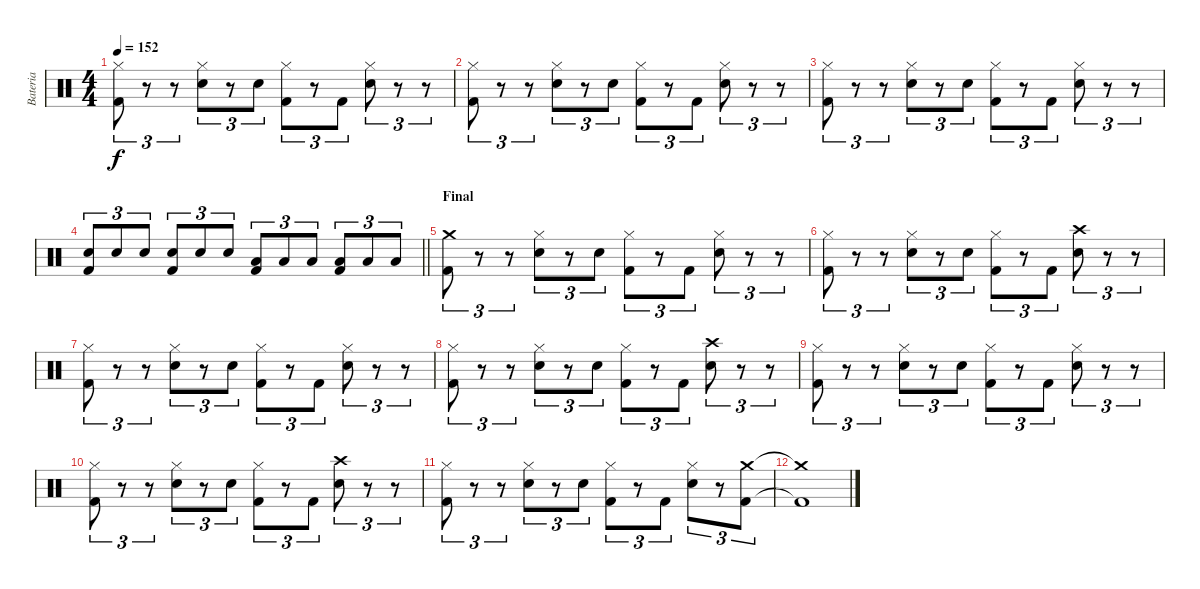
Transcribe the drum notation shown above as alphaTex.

\track ("Bateria" "Bateria") {instrument percussion}
\staff {score}
\articulation defaults
\ts (4 4)
\tempo 152
\clef neutral
\ks c
("Hi-Hat (closed)" "Kick (hit) 2").8{tu (3 2) dy f} r.8{tu (3 2)} r.8{tu (3 2)} ("Hi-Hat (closed)" "Snare (hit) 2").8{tu (3 2)} r.8{tu (3 2)} "Snare (hit) 2".8{tu (3 2)} ("Hi-Hat (closed)" "Kick (hit) 2").8{tu (3 2)} r.8{tu (3 2)} "Kick (hit) 2".8{tu (3 2)} ("Hi-Hat (closed)" "Snare (hit) 2").8{tu (3 2)} r.8{tu (3 2)} r.8{tu (3 2)} |
("Hi-Hat (closed)" "Kick (hit) 2").8{tu (3 2)} r.8{tu (3 2)} r.8{tu (3 2)} ("Hi-Hat (closed)" "Snare (hit) 2").8{tu (3 2)} r.8{tu (3 2)} "Snare (hit) 2".8{tu (3 2)} ("Hi-Hat (closed)" "Kick (hit) 2").8{tu (3 2)} r.8{tu (3 2)} "Kick (hit) 2".8{tu (3 2)} ("Hi-Hat (closed)" "Snare (hit) 2").8{tu (3 2)} r.8{tu (3 2)} r.8{tu (3 2)} |
("Hi-Hat (closed)" "Kick (hit) 2").8{tu (3 2)} r.8{tu (3 2)} r.8{tu (3 2)} ("Hi-Hat (closed)" "Snare (hit) 2").8{tu (3 2)} r.8{tu (3 2)} "Snare (hit) 2".8{tu (3 2)} ("Hi-Hat (closed)" "Kick (hit) 2").8{tu (3 2)} r.8{tu (3 2)} "Kick (hit) 2".8{tu (3 2)} ("Hi-Hat (closed)" "Snare (hit) 2").8{tu (3 2)} r.8{tu (3 2)} r.8{tu (3 2)} |
\barLineRight lightlight
("Snare (hit) 2" "Kick (hit) 2").8{tu (3 2)} "Snare (hit) 2".8{tu (3 2)} "Snare (hit) 2".8{tu (3 2)} ("Snare (hit) 2" "Kick (hit) 2").8{tu (3 2)} "Snare (hit) 2".8{tu (3 2)} "Snare (hit) 2".8{tu (3 2)} ("Low Floor Tom (hit)" "Kick (hit) 2").8{tu (3 2)} "Low Tom (hit)".8{tu (3 2)} "Low Tom (hit)".8{tu (3 2)} ("Low Floor Tom (hit)" "Kick (hit) 2").8{tu (3 2)} "Low Floor Tom (hit)".8{tu (3 2)} "Low Floor Tom (hit)".8{tu (3 2)} |
\section ("" "Final")
("Crash medium (hit)" "Kick (hit) 2").8{tu (3 2)} r.8{tu (3 2)} r.8{tu (3 2)} ("Hi-Hat (closed)" "Snare (hit) 2").8{tu (3 2)} r.8{tu (3 2)} "Snare (hit) 2".8{tu (3 2)} ("Hi-Hat (closed)" "Kick (hit) 2").8{tu (3 2)} r.8{tu (3 2)} "Kick (hit) 2".8{tu (3 2)} ("Hi-Hat (closed)" "Snare (hit) 2").8{tu (3 2)} r.8{tu (3 2)} r.8{tu (3 2)} |
("Hi-Hat (closed)" "Kick (hit) 2").8{tu (3 2)} r.8{tu (3 2)} r.8{tu (3 2)} ("Hi-Hat (closed)" "Snare (hit) 2").8{tu (3 2)} r.8{tu (3 2)} "Snare (hit) 2".8{tu (3 2)} ("Hi-Hat (closed)" "Kick (hit) 2").8{tu (3 2)} r.8{tu (3 2)} "Kick (hit) 2".8{tu (3 2)} ("Crash high (hit)" "Snare (hit) 2").8{tu (3 2)} r.8{tu (3 2)} r.8{tu (3 2)} |
("Hi-Hat (closed)" "Kick (hit) 2").8{tu (3 2)} r.8{tu (3 2)} r.8{tu (3 2)} ("Hi-Hat (closed)" "Snare (hit) 2").8{tu (3 2)} r.8{tu (3 2)} "Snare (hit) 2".8{tu (3 2)} ("Hi-Hat (closed)" "Kick (hit) 2").8{tu (3 2)} r.8{tu (3 2)} "Kick (hit) 2".8{tu (3 2)} ("Hi-Hat (closed)" "Snare (hit) 2").8{tu (3 2)} r.8{tu (3 2)} r.8{tu (3 2)} |
("Hi-Hat (closed)" "Kick (hit) 2").8{tu (3 2)} r.8{tu (3 2)} r.8{tu (3 2)} ("Hi-Hat (closed)" "Snare (hit) 2").8{tu (3 2)} r.8{tu (3 2)} "Snare (hit) 2".8{tu (3 2)} ("Hi-Hat (closed)" "Kick (hit) 2").8{tu (3 2)} r.8{tu (3 2)} "Kick (hit) 2".8{tu (3 2)} ("Crash high (hit)" "Snare (hit) 2").8{tu (3 2)} r.8{tu (3 2)} r.8{tu (3 2)} |
("Hi-Hat (closed)" "Kick (hit) 2").8{tu (3 2)} r.8{tu (3 2)} r.8{tu (3 2)} ("Hi-Hat (closed)" "Snare (hit) 2").8{tu (3 2)} r.8{tu (3 2)} "Snare (hit) 2".8{tu (3 2)} ("Hi-Hat (closed)" "Kick (hit) 2").8{tu (3 2)} r.8{tu (3 2)} "Kick (hit) 2".8{tu (3 2)} ("Hi-Hat (closed)" "Snare (hit) 2").8{tu (3 2)} r.8{tu (3 2)} r.8{tu (3 2)} |
("Hi-Hat (closed)" "Kick (hit) 2").8{tu (3 2)} r.8{tu (3 2)} r.8{tu (3 2)} ("Hi-Hat (closed)" "Snare (hit) 2").8{tu (3 2)} r.8{tu (3 2)} "Snare (hit) 2".8{tu (3 2)} ("Hi-Hat (closed)" "Kick (hit) 2").8{tu (3 2)} r.8{tu (3 2)} "Kick (hit) 2".8{tu (3 2)} ("Crash high (hit)" "Snare (hit) 2").8{tu (3 2)} r.8{tu (3 2)} r.8{tu (3 2)} |
("Hi-Hat (closed)" "Kick (hit) 2").8{tu (3 2)} r.8{tu (3 2)} r.8{tu (3 2)} ("Hi-Hat (closed)" "Snare (hit) 2").8{tu (3 2)} r.8{tu (3 2)} "Snare (hit) 2".8{tu (3 2)} ("Hi-Hat (closed)" "Kick (hit) 2").8{tu (3 2)} r.8{tu (3 2)} "Kick (hit) 2".8{tu (3 2)} ("Hi-Hat (closed)" "Snare (hit) 2").8{tu (3 2)} r.8{tu (3 2)} ("Crash medium (hit)" "Kick (hit) 2").8{tu (3 2)} |
("Crash medium (hit)"{t} "Kick (hit) 2"{t}).1
